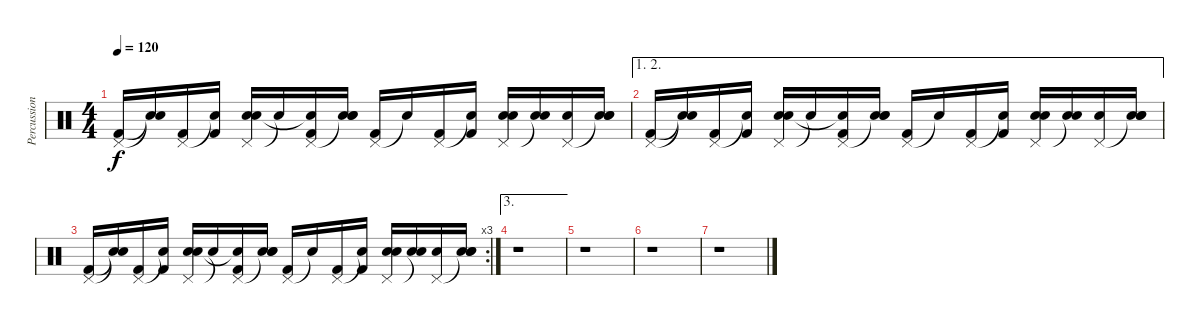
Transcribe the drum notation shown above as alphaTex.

\track ("Percussions" "Percussion") {instrument percussion}
\staff {score}
\articulation defaults
\ts (4 4)
\tempo 120
\clef neutral
\ks c
("Pedal Hi-Hat (hit)" "Kick (hit) 2").16{dy f} ("Snare (hit)"{t} "Snare (hit)"{t}).16 ("Pedal Hi-Hat (hit)" "Kick (hit) 2").16 ("Snare (hit)"{t} "Kick (hit) 2").16 ("Pedal Hi-Hat (hit)" "Electric Snare (hit)" "Snare (hit) 2").16 "Snare (hit)"{t}.16 ("Pedal Hi-Hat (hit)" "Snare (hit)"{t} "Kick (hit) 2").16 ("Snare (hit)"{t} "Electric Snare (hit)" "Snare (hit) 2").16 ("Pedal Hi-Hat (hit)" "Kick (hit) 2").16 "Snare (hit)"{t}.16 ("Pedal Hi-Hat (hit)" "Kick (hit) 2").16 ("Snare (hit)"{t} "Kick (hit) 2").16 ("Pedal Hi-Hat (hit)" "Electric Snare (hit)" "Snare (hit) 2").16 ("Snare (hit)"{t} "Snare (hit) 2").16 ("Pedal Hi-Hat (hit)" "Snare (hit) 2").16 ("Snare (hit)"{t} "Electric Snare (hit)" "Snare (hit) 2").16 |
\ae (1 2)
("Pedal Hi-Hat (hit)" "Kick (hit) 2").16 ("Snare (hit)"{t} "Snare (hit)"{t}).16 ("Pedal Hi-Hat (hit)" "Kick (hit) 2").16 ("Snare (hit)"{t} "Kick (hit) 2").16 ("Pedal Hi-Hat (hit)" "Electric Snare (hit)" "Snare (hit) 2").16 "Snare (hit)"{t}.16 ("Pedal Hi-Hat (hit)" "Snare (hit)"{t} "Kick (hit) 2").16 ("Snare (hit)"{t} "Electric Snare (hit)" "Snare (hit) 2").16 ("Pedal Hi-Hat (hit)" "Kick (hit) 2").16 "Snare (hit)"{t}.16 ("Pedal Hi-Hat (hit)" "Kick (hit) 2").16 ("Snare (hit)"{t} "Kick (hit) 2").16 ("Pedal Hi-Hat (hit)" "Electric Snare (hit)" "Snare (hit) 2").16 ("Snare (hit)"{t} "Snare (hit) 2").16 ("Pedal Hi-Hat (hit)" "Snare (hit) 2").16 ("Snare (hit)"{t} "Electric Snare (hit)" "Snare (hit) 2").16 |
\rc 3
("Pedal Hi-Hat (hit)" "Kick (hit) 2").16 ("Snare (hit)"{t} "Snare (hit)"{t}).16 ("Pedal Hi-Hat (hit)" "Kick (hit) 2").16 ("Snare (hit)"{t} "Kick (hit) 2").16 ("Pedal Hi-Hat (hit)" "Electric Snare (hit)" "Snare (hit) 2").16 "Snare (hit)"{t}.16 ("Pedal Hi-Hat (hit)" "Snare (hit)"{t} "Kick (hit) 2").16 ("Snare (hit)"{t} "Electric Snare (hit)" "Snare (hit) 2").16 ("Pedal Hi-Hat (hit)" "Kick (hit) 2").16 "Snare (hit)"{t}.16 ("Pedal Hi-Hat (hit)" "Kick (hit) 2").16 ("Snare (hit)"{t} "Kick (hit) 2").16 ("Pedal Hi-Hat (hit)" "Electric Snare (hit)" "Snare (hit) 2").16 ("Snare (hit)"{t} "Snare (hit) 2").16 ("Pedal Hi-Hat (hit)" "Snare (hit) 2").16 ("Snare (hit)"{t} "Electric Snare (hit)" "Snare (hit) 2").16 |
\ae 3
r.1 |
r.1 |
r.1 |
r.1
